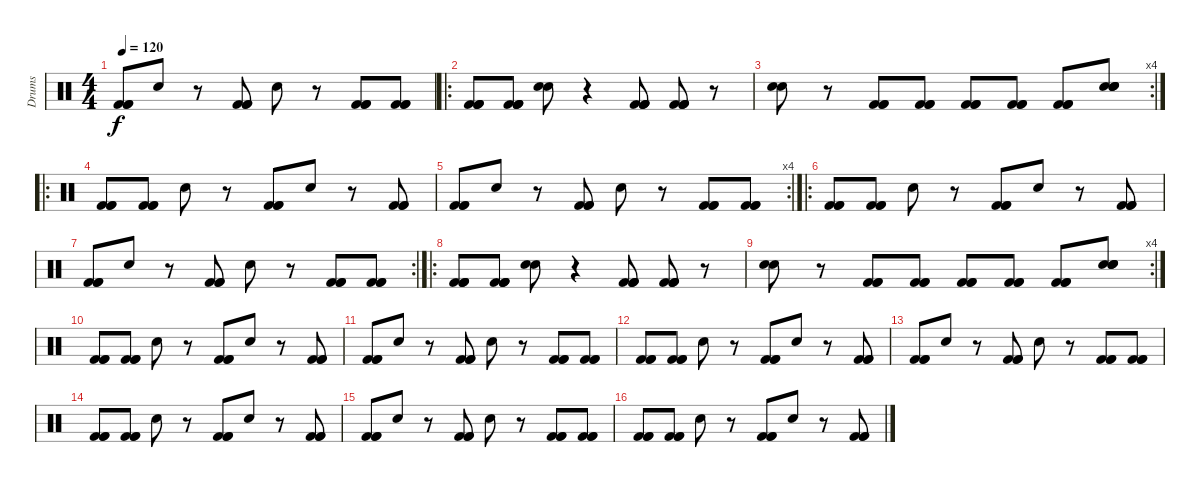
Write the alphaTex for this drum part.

\track ("Drums" "Drums") {instrument percussion}
\staff {score}
\articulation defaults
\ts (4 4)
\tempo 120
\clef neutral
\ks c
("Kick (hit) 2" "Kick (hit) 2" "Kick (hit) 2").8{dy f} "Snare (hit) 2".8 r.8 ("Kick (hit) 2" "Kick (hit) 2" "Kick (hit) 2").8 "Snare (hit) 2".8 r.8 ("Kick (hit) 2" "Kick (hit) 2" "Kick (hit) 2").8 ("Kick (hit) 2" "Kick (hit) 2" "Kick (hit) 2").8 |
\ro
("Kick (hit) 2" "Kick (hit) 2" "Kick (hit) 2" "Kick (hit) 2").8 ("Kick (hit) 2" "Kick (hit) 2" "Kick (hit) 2" "Kick (hit) 2").8 ("Snare (hit) 2" "Snare (hit) 2").8 r.4 ("Kick (hit) 2" "Kick (hit) 2" "Kick (hit) 2" "Kick (hit) 2").8 ("Kick (hit) 2" "Kick (hit) 2" "Kick (hit) 2" "Kick (hit) 2").8 r.8 |
\rc 4
("Snare (hit) 2" "Snare (hit) 2").8 r.8 ("Kick (hit) 2" "Kick (hit) 2" "Kick (hit) 2").8 ("Kick (hit) 2" "Kick (hit) 2" "Kick (hit) 2").8 ("Kick (hit) 2" "Kick (hit) 2" "Kick (hit) 2").8 ("Kick (hit) 2" "Kick (hit) 2" "Kick (hit) 2").8 ("Kick (hit) 2" "Kick (hit) 2" "Kick (hit) 2").8 ("Snare (hit) 2" "Snare (hit) 2" "Snare (hit) 2" "Snare (hit) 2").8 |
\ro
("Kick (hit) 2" "Kick (hit) 2" "Kick (hit) 2").8 ("Kick (hit) 2" "Kick (hit) 2" "Kick (hit) 2").8 "Snare (hit) 2".8 r.8 ("Kick (hit) 2" "Kick (hit) 2" "Kick (hit) 2").8 "Snare (hit) 2".8 r.8 ("Kick (hit) 2" "Kick (hit) 2" "Kick (hit) 2").8 |
\rc 4
("Kick (hit) 2" "Kick (hit) 2" "Kick (hit) 2").8 "Snare (hit) 2".8 r.8 ("Kick (hit) 2" "Kick (hit) 2" "Kick (hit) 2").8 "Snare (hit) 2".8 r.8 ("Kick (hit) 2" "Kick (hit) 2" "Kick (hit) 2").8 ("Kick (hit) 2" "Kick (hit) 2" "Kick (hit) 2").8 |
\ro
("Kick (hit) 2" "Kick (hit) 2" "Kick (hit) 2").8 ("Kick (hit) 2" "Kick (hit) 2" "Kick (hit) 2").8 "Snare (hit) 2".8 r.8 ("Kick (hit) 2" "Kick (hit) 2" "Kick (hit) 2").8 "Snare (hit) 2".8 r.8 ("Kick (hit) 2" "Kick (hit) 2" "Kick (hit) 2").8 |
\rc 2
("Kick (hit) 2" "Kick (hit) 2" "Kick (hit) 2").8 "Snare (hit) 2".8 r.8 ("Kick (hit) 2" "Kick (hit) 2" "Kick (hit) 2").8 "Snare (hit) 2".8 r.8 ("Kick (hit) 2" "Kick (hit) 2" "Kick (hit) 2").8 ("Kick (hit) 2" "Kick (hit) 2" "Kick (hit) 2").8 |
\ro
("Kick (hit) 2" "Kick (hit) 2" "Kick (hit) 2" "Kick (hit) 2").8 ("Kick (hit) 2" "Kick (hit) 2" "Kick (hit) 2" "Kick (hit) 2").8 ("Snare (hit) 2" "Snare (hit) 2").8 r.4 ("Kick (hit) 2" "Kick (hit) 2" "Kick (hit) 2" "Kick (hit) 2").8 ("Kick (hit) 2" "Kick (hit) 2" "Kick (hit) 2" "Kick (hit) 2").8 r.8 |
\rc 4
("Snare (hit) 2" "Snare (hit) 2").8 r.8 ("Kick (hit) 2" "Kick (hit) 2" "Kick (hit) 2").8 ("Kick (hit) 2" "Kick (hit) 2" "Kick (hit) 2").8 ("Kick (hit) 2" "Kick (hit) 2" "Kick (hit) 2").8 ("Kick (hit) 2" "Kick (hit) 2" "Kick (hit) 2").8 ("Kick (hit) 2" "Kick (hit) 2" "Kick (hit) 2").8 ("Snare (hit) 2" "Snare (hit) 2" "Snare (hit) 2" "Snare (hit) 2").8 |
("Kick (hit) 2" "Kick (hit) 2" "Kick (hit) 2").8 ("Kick (hit) 2" "Kick (hit) 2" "Kick (hit) 2").8 "Snare (hit) 2".8 r.8 ("Kick (hit) 2" "Kick (hit) 2" "Kick (hit) 2").8 "Snare (hit) 2".8 r.8 ("Kick (hit) 2" "Kick (hit) 2" "Kick (hit) 2").8 |
("Kick (hit) 2" "Kick (hit) 2" "Kick (hit) 2").8 "Snare (hit) 2".8 r.8 ("Kick (hit) 2" "Kick (hit) 2" "Kick (hit) 2").8 "Snare (hit) 2".8 r.8 ("Kick (hit) 2" "Kick (hit) 2" "Kick (hit) 2").8 ("Kick (hit) 2" "Kick (hit) 2" "Kick (hit) 2").8 |
("Kick (hit) 2" "Kick (hit) 2" "Kick (hit) 2").8 ("Kick (hit) 2" "Kick (hit) 2" "Kick (hit) 2").8 "Snare (hit) 2".8 r.8 ("Kick (hit) 2" "Kick (hit) 2" "Kick (hit) 2").8 "Snare (hit) 2".8 r.8 ("Kick (hit) 2" "Kick (hit) 2" "Kick (hit) 2").8 |
("Kick (hit) 2" "Kick (hit) 2" "Kick (hit) 2").8 "Snare (hit) 2".8 r.8 ("Kick (hit) 2" "Kick (hit) 2" "Kick (hit) 2").8 "Snare (hit) 2".8 r.8 ("Kick (hit) 2" "Kick (hit) 2" "Kick (hit) 2").8 ("Kick (hit) 2" "Kick (hit) 2" "Kick (hit) 2").8 |
("Kick (hit) 2" "Kick (hit) 2" "Kick (hit) 2").8 ("Kick (hit) 2" "Kick (hit) 2" "Kick (hit) 2").8 "Snare (hit) 2".8 r.8 ("Kick (hit) 2" "Kick (hit) 2" "Kick (hit) 2").8 "Snare (hit) 2".8 r.8 ("Kick (hit) 2" "Kick (hit) 2" "Kick (hit) 2").8 |
("Kick (hit) 2" "Kick (hit) 2" "Kick (hit) 2").8 "Snare (hit) 2".8 r.8 ("Kick (hit) 2" "Kick (hit) 2" "Kick (hit) 2").8 "Snare (hit) 2".8 r.8 ("Kick (hit) 2" "Kick (hit) 2" "Kick (hit) 2").8 ("Kick (hit) 2" "Kick (hit) 2" "Kick (hit) 2").8 |
("Kick (hit) 2" "Kick (hit) 2" "Kick (hit) 2").8 ("Kick (hit) 2" "Kick (hit) 2" "Kick (hit) 2").8 "Snare (hit) 2".8 r.8 ("Kick (hit) 2" "Kick (hit) 2" "Kick (hit) 2").8 "Snare (hit) 2".8 r.8 ("Kick (hit) 2" "Kick (hit) 2" "Kick (hit) 2").8
